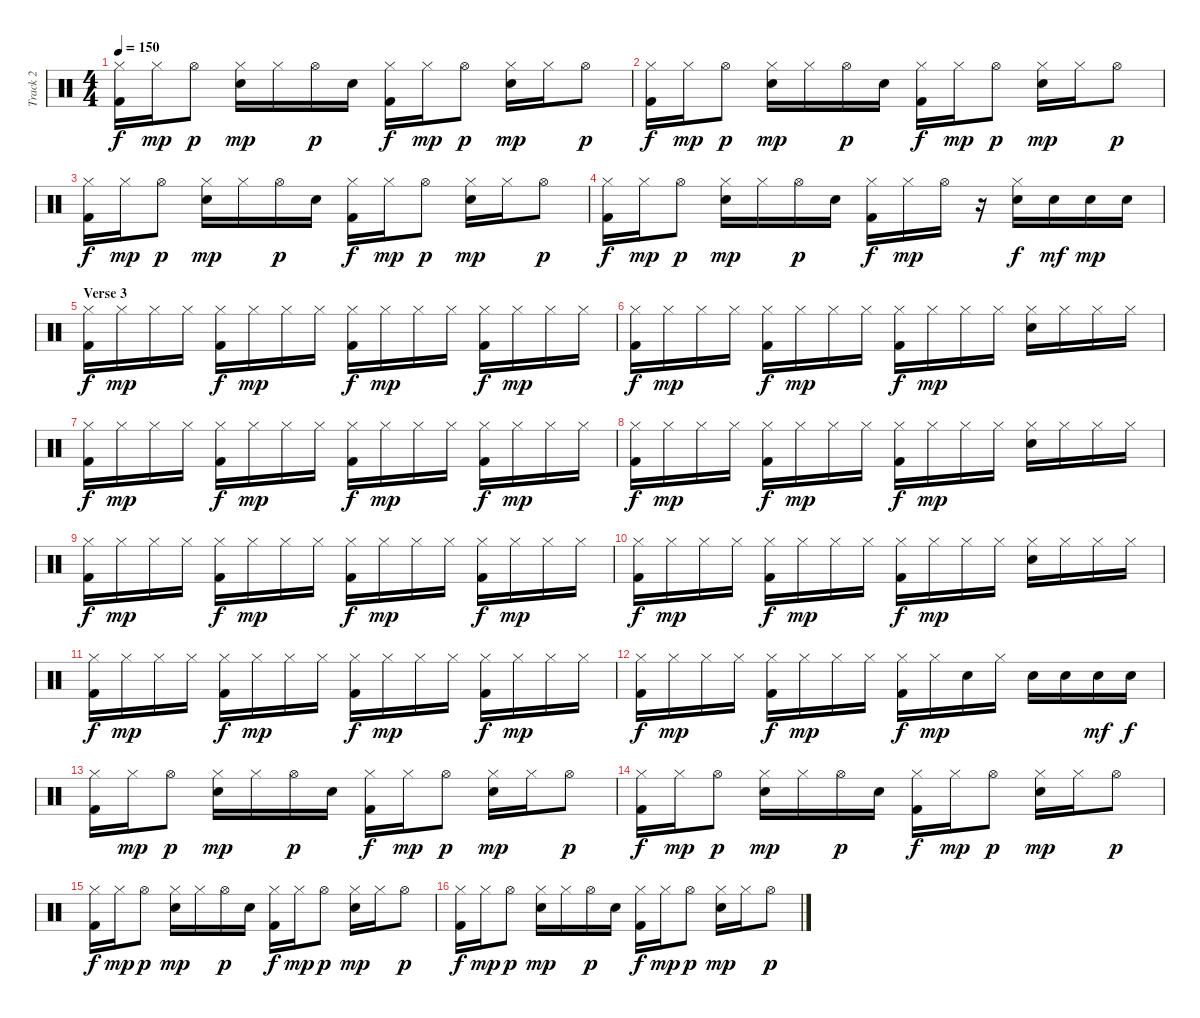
\track ("Track 2" "Track 2") {instrument percussion}
\staff {score}
\articulation defaults
\ts (4 4)
\tempo 150
\clef neutral
\ks c
("Hi-Hat (closed)" "Kick (hit) 2").16{dy f} "Hi-Hat (closed)".16{dy mp} "Hi-Hat (open)".8{dy p} ("Hi-Hat (closed)" "Electric Snare (hit)").16{dy mp} "Hi-Hat (closed)".16 "Hi-Hat (open)".16{dy p} "Electric Snare (hit)".16 ("Hi-Hat (closed)" "Kick (hit) 2").16{dy f} "Hi-Hat (closed)".16{dy mp} "Hi-Hat (open)".8{dy p} ("Hi-Hat (closed)" "Electric Snare (hit)").16{dy mp} "Hi-Hat (closed)".16 "Hi-Hat (open)".8{dy p} |
("Hi-Hat (closed)" "Kick (hit) 2").16{dy f} "Hi-Hat (closed)".16{dy mp} "Hi-Hat (open)".8{dy p} ("Hi-Hat (closed)" "Electric Snare (hit)").16{dy mp} "Hi-Hat (closed)".16 "Hi-Hat (open)".16{dy p} "Electric Snare (hit)".16 ("Hi-Hat (closed)" "Kick (hit) 2").16{dy f} "Hi-Hat (closed)".16{dy mp} "Hi-Hat (open)".8{dy p} ("Hi-Hat (closed)" "Electric Snare (hit)").16{dy mp} "Hi-Hat (closed)".16 "Hi-Hat (open)".8{dy p} |
("Hi-Hat (closed)" "Kick (hit) 2").16{dy f} "Hi-Hat (closed)".16{dy mp} "Hi-Hat (open)".8{dy p} ("Hi-Hat (closed)" "Electric Snare (hit)").16{dy mp} "Hi-Hat (closed)".16 "Hi-Hat (open)".16{dy p} "Electric Snare (hit)".16 ("Hi-Hat (closed)" "Kick (hit) 2").16{dy f} "Hi-Hat (closed)".16{dy mp} "Hi-Hat (open)".8{dy p} ("Hi-Hat (closed)" "Electric Snare (hit)").16{dy mp} "Hi-Hat (closed)".16 "Hi-Hat (open)".8{dy p} |
("Hi-Hat (closed)" "Kick (hit) 2").16{dy f} "Hi-Hat (closed)".16{dy mp} "Hi-Hat (open)".8{dy p} ("Hi-Hat (closed)" "Electric Snare (hit)").16{dy mp} "Hi-Hat (closed)".16 "Hi-Hat (open)".16{dy p} "Electric Snare (hit)".16 ("Hi-Hat (closed)" "Kick (hit) 2").16{dy f} "Hi-Hat (closed)".16{dy mp} "Hi-Hat (open)".16 r.16 ("Hi-Hat (closed)" "Electric Snare (hit)").16{dy f} "Electric Snare (hit)".16{dy mf} "Electric Snare (hit)".16{dy mp} "Electric Snare (hit)".16 |
\section ("" "Verse 3")
("Hi-Hat (closed)" "Kick (hit) 2").16{dy f} "Hi-Hat (closed)".16{dy mp} "Hi-Hat (closed)".16 "Hi-Hat (closed)".16 ("Hi-Hat (closed)" "Kick (hit) 2").16{dy f} "Hi-Hat (closed)".16{dy mp} "Hi-Hat (closed)".16 "Hi-Hat (closed)".16 ("Hi-Hat (closed)" "Kick (hit) 2").16{dy f} "Hi-Hat (closed)".16{dy mp} "Hi-Hat (closed)".16 "Hi-Hat (closed)".16 ("Hi-Hat (closed)" "Kick (hit) 2").16{dy f} "Hi-Hat (closed)".16{dy mp} "Hi-Hat (closed)".16 "Hi-Hat (closed)".16 |
("Hi-Hat (closed)" "Kick (hit) 2").16{dy f} "Hi-Hat (closed)".16{dy mp} "Hi-Hat (closed)".16 "Hi-Hat (closed)".16 ("Hi-Hat (closed)" "Kick (hit) 2").16{dy f} "Hi-Hat (closed)".16{dy mp} "Hi-Hat (closed)".16 "Hi-Hat (closed)".16 ("Hi-Hat (closed)" "Kick (hit) 2").16{dy f} "Hi-Hat (closed)".16{dy mp} "Hi-Hat (closed)".16 "Hi-Hat (closed)".16 ("Hi-Hat (closed)" "Electric Snare (hit)").16 "Hi-Hat (closed)".16 "Hi-Hat (closed)".16 "Hi-Hat (closed)".16 |
("Hi-Hat (closed)" "Kick (hit) 2").16{dy f} "Hi-Hat (closed)".16{dy mp} "Hi-Hat (closed)".16 "Hi-Hat (closed)".16 ("Hi-Hat (closed)" "Kick (hit) 2").16{dy f} "Hi-Hat (closed)".16{dy mp} "Hi-Hat (closed)".16 "Hi-Hat (closed)".16 ("Hi-Hat (closed)" "Kick (hit) 2").16{dy f} "Hi-Hat (closed)".16{dy mp} "Hi-Hat (closed)".16 "Hi-Hat (closed)".16 ("Hi-Hat (closed)" "Kick (hit) 2").16{dy f} "Hi-Hat (closed)".16{dy mp} "Hi-Hat (closed)".16 "Hi-Hat (closed)".16 |
("Hi-Hat (closed)" "Kick (hit) 2").16{dy f} "Hi-Hat (closed)".16{dy mp} "Hi-Hat (closed)".16 "Hi-Hat (closed)".16 ("Hi-Hat (closed)" "Kick (hit) 2").16{dy f} "Hi-Hat (closed)".16{dy mp} "Hi-Hat (closed)".16 "Hi-Hat (closed)".16 ("Hi-Hat (closed)" "Kick (hit) 2").16{dy f} "Hi-Hat (closed)".16{dy mp} "Hi-Hat (closed)".16 "Hi-Hat (closed)".16 ("Hi-Hat (closed)" "Electric Snare (hit)").16 "Hi-Hat (closed)".16 "Hi-Hat (closed)".16 "Hi-Hat (closed)".16 |
("Hi-Hat (closed)" "Kick (hit) 2").16{dy f} "Hi-Hat (closed)".16{dy mp} "Hi-Hat (closed)".16 "Hi-Hat (closed)".16 ("Hi-Hat (closed)" "Kick (hit) 2").16{dy f} "Hi-Hat (closed)".16{dy mp} "Hi-Hat (closed)".16 "Hi-Hat (closed)".16 ("Hi-Hat (closed)" "Kick (hit) 2").16{dy f} "Hi-Hat (closed)".16{dy mp} "Hi-Hat (closed)".16 "Hi-Hat (closed)".16 ("Hi-Hat (closed)" "Kick (hit) 2").16{dy f} "Hi-Hat (closed)".16{dy mp} "Hi-Hat (closed)".16 "Hi-Hat (closed)".16 |
("Hi-Hat (closed)" "Kick (hit) 2").16{dy f} "Hi-Hat (closed)".16{dy mp} "Hi-Hat (closed)".16 "Hi-Hat (closed)".16 ("Hi-Hat (closed)" "Kick (hit) 2").16{dy f} "Hi-Hat (closed)".16{dy mp} "Hi-Hat (closed)".16 "Hi-Hat (closed)".16 ("Hi-Hat (closed)" "Kick (hit) 2").16{dy f} "Hi-Hat (closed)".16{dy mp} "Hi-Hat (closed)".16 "Hi-Hat (closed)".16 ("Hi-Hat (closed)" "Electric Snare (hit)").16 "Hi-Hat (closed)".16 "Hi-Hat (closed)".16 "Hi-Hat (closed)".16 |
("Hi-Hat (closed)" "Kick (hit) 2").16{dy f} "Hi-Hat (closed)".16{dy mp} "Hi-Hat (closed)".16 "Hi-Hat (closed)".16 ("Hi-Hat (closed)" "Kick (hit) 2").16{dy f} "Hi-Hat (closed)".16{dy mp} "Hi-Hat (closed)".16 "Hi-Hat (closed)".16 ("Hi-Hat (closed)" "Kick (hit) 2").16{dy f} "Hi-Hat (closed)".16{dy mp} "Hi-Hat (closed)".16 "Hi-Hat (closed)".16 ("Hi-Hat (closed)" "Kick (hit) 2").16{dy f} "Hi-Hat (closed)".16{dy mp} "Hi-Hat (closed)".16 "Hi-Hat (closed)".16 |
("Hi-Hat (closed)" "Kick (hit) 2").16{dy f} "Hi-Hat (closed)".16{dy mp} "Hi-Hat (closed)".16 "Hi-Hat (closed)".16 ("Hi-Hat (closed)" "Kick (hit) 2").16{dy f} "Hi-Hat (closed)".16{dy mp} "Hi-Hat (closed)".16 "Hi-Hat (closed)".16 ("Hi-Hat (closed)" "Kick (hit) 2").16{dy f} "Hi-Hat (closed)".16{dy mp} "Electric Snare (hit)".16 "Hi-Hat (closed)".16 "Electric Snare (hit)".16 "Electric Snare (hit)".16 "Electric Snare (hit)".16{dy mf} "Electric Snare (hit)".16{dy f} |
("Hi-Hat (closed)" "Kick (hit) 2").16 "Hi-Hat (closed)".16{dy mp} "Hi-Hat (open)".8{dy p} ("Hi-Hat (closed)" "Electric Snare (hit)").16{dy mp} "Hi-Hat (closed)".16 "Hi-Hat (open)".16{dy p} "Electric Snare (hit)".16 ("Hi-Hat (closed)" "Kick (hit) 2").16{dy f} "Hi-Hat (closed)".16{dy mp} "Hi-Hat (open)".8{dy p} ("Hi-Hat (closed)" "Electric Snare (hit)").16{dy mp} "Hi-Hat (closed)".16 "Hi-Hat (open)".8{dy p} |
("Hi-Hat (closed)" "Kick (hit) 2").16{dy f} "Hi-Hat (closed)".16{dy mp} "Hi-Hat (open)".8{dy p} ("Hi-Hat (closed)" "Electric Snare (hit)").16{dy mp} "Hi-Hat (closed)".16 "Hi-Hat (open)".16{dy p} "Electric Snare (hit)".16 ("Hi-Hat (closed)" "Kick (hit) 2").16{dy f} "Hi-Hat (closed)".16{dy mp} "Hi-Hat (open)".8{dy p} ("Hi-Hat (closed)" "Electric Snare (hit)").16{dy mp} "Hi-Hat (closed)".16 "Hi-Hat (open)".8{dy p} |
("Hi-Hat (closed)" "Kick (hit) 2").16{dy f} "Hi-Hat (closed)".16{dy mp} "Hi-Hat (open)".8{dy p} ("Hi-Hat (closed)" "Electric Snare (hit)").16{dy mp} "Hi-Hat (closed)".16 "Hi-Hat (open)".16{dy p} "Electric Snare (hit)".16 ("Hi-Hat (closed)" "Kick (hit) 2").16{dy f} "Hi-Hat (closed)".16{dy mp} "Hi-Hat (open)".8{dy p} ("Hi-Hat (closed)" "Electric Snare (hit)").16{dy mp} "Hi-Hat (closed)".16 "Hi-Hat (open)".8{dy p} |
("Hi-Hat (closed)" "Kick (hit) 2").16{dy f} "Hi-Hat (closed)".16{dy mp} "Hi-Hat (open)".8{dy p} ("Hi-Hat (closed)" "Electric Snare (hit)").16{dy mp} "Hi-Hat (closed)".16 "Hi-Hat (open)".16{dy p} "Electric Snare (hit)".16 ("Hi-Hat (closed)" "Kick (hit) 2").16{dy f} "Hi-Hat (closed)".16{dy mp} "Hi-Hat (open)".8{dy p} ("Hi-Hat (closed)" "Electric Snare (hit)").16{dy mp} "Hi-Hat (closed)".16 "Hi-Hat (open)".8{dy p}
